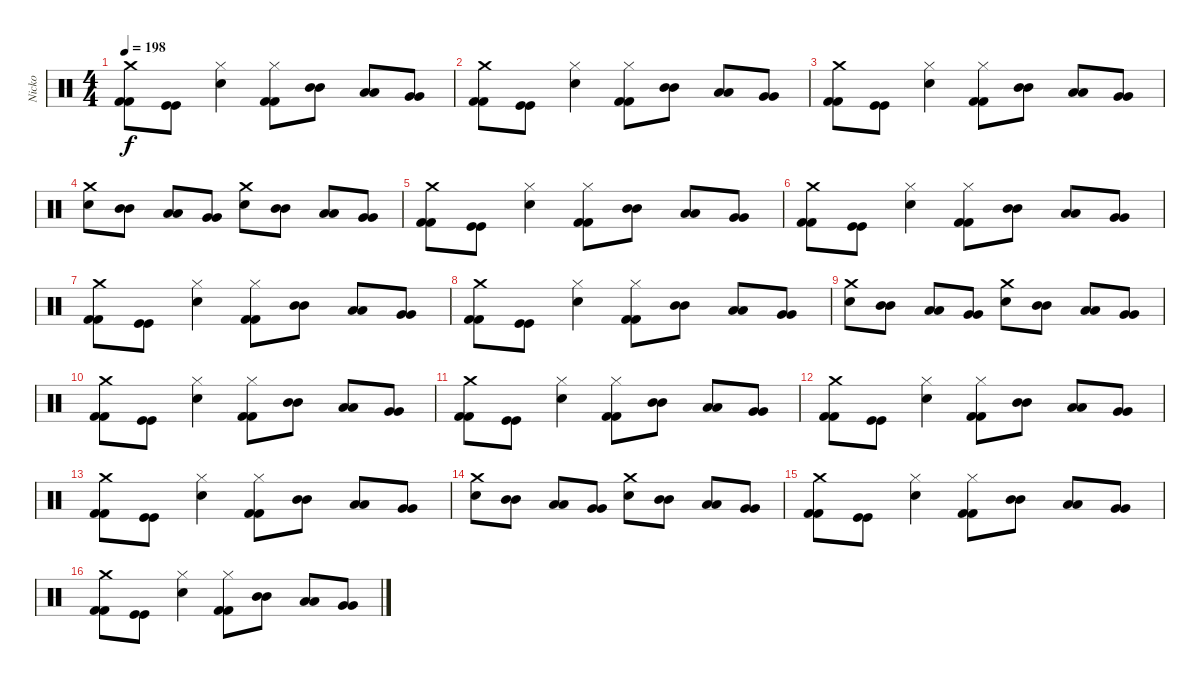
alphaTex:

\track ("Nicko" "Nicko") {instrument percussion}
\staff {score}
\articulation defaults
\ts (4 4)
\tempo 198
\clef neutral
\ks c
("Crash medium (hit)" "Kick (hit) 2" "Kick (hit) 2").8{dy f} ("Kick (hit)" "Kick (hit)").8 ("Hi-Hat (closed)" "Electric Snare (hit)").4 ("Hi-Hat (closed)" "Kick (hit) 2" "Kick (hit) 2").8 ("Mid Tom (hit)" "Mid Tom (hit)").8 ("Low Tom (hit)" "Low Tom (hit)").8 ("Very Low Tom (hit)" "Very Low Tom (hit)").8 |
("Crash medium (hit)" "Kick (hit) 2" "Kick (hit) 2").8 ("Kick (hit)" "Kick (hit)").8 ("Hi-Hat (closed)" "Electric Snare (hit)").4 ("Hi-Hat (closed)" "Kick (hit) 2" "Kick (hit) 2").8 ("Mid Tom (hit)" "Mid Tom (hit)").8 ("Low Tom (hit)" "Low Tom (hit)").8 ("Very Low Tom (hit)" "Very Low Tom (hit)").8 |
("Crash medium (hit)" "Kick (hit) 2" "Kick (hit) 2").8 ("Kick (hit)" "Kick (hit)").8 ("Hi-Hat (closed)" "Electric Snare (hit)").4 ("Hi-Hat (closed)" "Kick (hit) 2" "Kick (hit) 2").8 ("Mid Tom (hit)" "Mid Tom (hit)").8 ("Low Tom (hit)" "Low Tom (hit)").8 ("Very Low Tom (hit)" "Very Low Tom (hit)").8 |
("Crash medium (hit)" "Electric Snare (hit)").8 ("Mid Tom (hit)" "Mid Tom (hit)").8 ("Low Tom (hit)" "Low Tom (hit)").8 ("Very Low Tom (hit)" "Very Low Tom (hit)").8 ("Crash medium (hit)" "Electric Snare (hit)").8 ("Mid Tom (hit)" "Mid Tom (hit)").8 ("Low Tom (hit)" "Low Tom (hit)").8 ("Very Low Tom (hit)" "Very Low Tom (hit)").8 |
("Crash medium (hit)" "Kick (hit) 2" "Kick (hit) 2").8 ("Kick (hit)" "Kick (hit)").8 ("Hi-Hat (closed)" "Electric Snare (hit)").4 ("Hi-Hat (closed)" "Kick (hit) 2" "Kick (hit) 2").8 ("Mid Tom (hit)" "Mid Tom (hit)").8 ("Low Tom (hit)" "Low Tom (hit)").8 ("Very Low Tom (hit)" "Very Low Tom (hit)").8 |
("Crash medium (hit)" "Kick (hit) 2" "Kick (hit) 2").8 ("Kick (hit)" "Kick (hit)").8 ("Hi-Hat (closed)" "Electric Snare (hit)").4 ("Hi-Hat (closed)" "Kick (hit) 2" "Kick (hit) 2").8 ("Mid Tom (hit)" "Mid Tom (hit)").8 ("Low Tom (hit)" "Low Tom (hit)").8 ("Very Low Tom (hit)" "Very Low Tom (hit)").8 |
("Crash medium (hit)" "Kick (hit) 2" "Kick (hit) 2").8 ("Kick (hit)" "Kick (hit)").8 ("Hi-Hat (closed)" "Electric Snare (hit)").4 ("Hi-Hat (closed)" "Kick (hit) 2" "Kick (hit) 2").8 ("Mid Tom (hit)" "Mid Tom (hit)").8 ("Low Tom (hit)" "Low Tom (hit)").8 ("Very Low Tom (hit)" "Very Low Tom (hit)").8 |
("Crash medium (hit)" "Kick (hit) 2" "Kick (hit) 2").8 ("Kick (hit)" "Kick (hit)").8 ("Hi-Hat (closed)" "Electric Snare (hit)").4 ("Hi-Hat (closed)" "Kick (hit) 2" "Kick (hit) 2").8 ("Mid Tom (hit)" "Mid Tom (hit)").8 ("Low Tom (hit)" "Low Tom (hit)").8 ("Very Low Tom (hit)" "Very Low Tom (hit)").8 |
("Crash medium (hit)" "Electric Snare (hit)").8 ("Mid Tom (hit)" "Mid Tom (hit)").8 ("Low Tom (hit)" "Low Tom (hit)").8 ("Very Low Tom (hit)" "Very Low Tom (hit)").8 ("Crash medium (hit)" "Electric Snare (hit)").8 ("Mid Tom (hit)" "Mid Tom (hit)").8 ("Low Tom (hit)" "Low Tom (hit)").8 ("Very Low Tom (hit)" "Very Low Tom (hit)").8 |
("Crash medium (hit)" "Kick (hit) 2" "Kick (hit) 2").8 ("Kick (hit)" "Kick (hit)").8 ("Hi-Hat (closed)" "Electric Snare (hit)").4 ("Hi-Hat (closed)" "Kick (hit) 2" "Kick (hit) 2").8 ("Mid Tom (hit)" "Mid Tom (hit)").8 ("Low Tom (hit)" "Low Tom (hit)").8 ("Very Low Tom (hit)" "Very Low Tom (hit)").8 |
("Crash medium (hit)" "Kick (hit) 2" "Kick (hit) 2").8 ("Kick (hit)" "Kick (hit)").8 ("Hi-Hat (closed)" "Electric Snare (hit)").4 ("Hi-Hat (closed)" "Kick (hit) 2" "Kick (hit) 2").8 ("Mid Tom (hit)" "Mid Tom (hit)").8 ("Low Tom (hit)" "Low Tom (hit)").8 ("Very Low Tom (hit)" "Very Low Tom (hit)").8 |
("Crash medium (hit)" "Kick (hit) 2" "Kick (hit) 2").8 ("Kick (hit)" "Kick (hit)").8 ("Hi-Hat (closed)" "Electric Snare (hit)").4 ("Hi-Hat (closed)" "Kick (hit) 2" "Kick (hit) 2").8 ("Mid Tom (hit)" "Mid Tom (hit)").8 ("Low Tom (hit)" "Low Tom (hit)").8 ("Very Low Tom (hit)" "Very Low Tom (hit)").8 |
("Crash medium (hit)" "Kick (hit) 2" "Kick (hit) 2").8 ("Kick (hit)" "Kick (hit)").8 ("Hi-Hat (closed)" "Electric Snare (hit)").4 ("Hi-Hat (closed)" "Kick (hit) 2" "Kick (hit) 2").8 ("Mid Tom (hit)" "Mid Tom (hit)").8 ("Low Tom (hit)" "Low Tom (hit)").8 ("Very Low Tom (hit)" "Very Low Tom (hit)").8 |
("Crash medium (hit)" "Electric Snare (hit)").8 ("Mid Tom (hit)" "Mid Tom (hit)").8 ("Low Tom (hit)" "Low Tom (hit)").8 ("Very Low Tom (hit)" "Very Low Tom (hit)").8 ("Crash medium (hit)" "Electric Snare (hit)").8 ("Mid Tom (hit)" "Mid Tom (hit)").8 ("Low Tom (hit)" "Low Tom (hit)").8 ("Very Low Tom (hit)" "Very Low Tom (hit)").8 |
("Crash medium (hit)" "Kick (hit) 2" "Kick (hit) 2").8 ("Kick (hit)" "Kick (hit)").8 ("Hi-Hat (closed)" "Electric Snare (hit)").4 ("Hi-Hat (closed)" "Kick (hit) 2" "Kick (hit) 2").8 ("Mid Tom (hit)" "Mid Tom (hit)").8 ("Low Tom (hit)" "Low Tom (hit)").8 ("Very Low Tom (hit)" "Very Low Tom (hit)").8 |
("Crash medium (hit)" "Kick (hit) 2" "Kick (hit) 2").8 ("Kick (hit)" "Kick (hit)").8 ("Hi-Hat (closed)" "Electric Snare (hit)").4 ("Hi-Hat (closed)" "Kick (hit) 2" "Kick (hit) 2").8 ("Mid Tom (hit)" "Mid Tom (hit)").8 ("Low Tom (hit)" "Low Tom (hit)").8 ("Very Low Tom (hit)" "Very Low Tom (hit)").8
